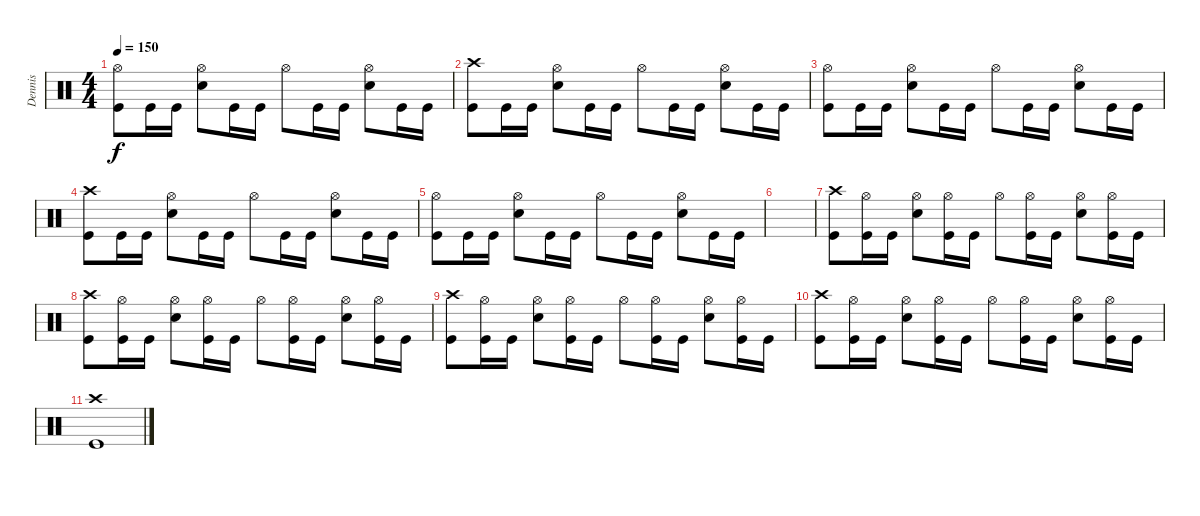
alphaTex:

\track ("Dennis" "Dennis") {instrument percussion}
\staff {score}
\articulation defaults
\ts (4 4)
\tempo 150
\clef neutral
\ks c
("Hi-Hat (open)" "Kick (hit)").8{dy f} "Kick (hit)".16 "Kick (hit)".16 ("Hi-Hat (open)" "Snare (hit) 2").8 "Kick (hit)".16 "Kick (hit)".16 "Hi-Hat (open)".8 "Kick (hit)".16 "Kick (hit)".16 ("Hi-Hat (open)" "Snare (hit) 2").8 "Kick (hit)".16 "Kick (hit)".16 |
("Crash high (hit)" "Kick (hit)").8 "Kick (hit)".16 "Kick (hit)".16 ("Hi-Hat (open)" "Snare (hit) 2").8 "Kick (hit)".16 "Kick (hit)".16 "Hi-Hat (open)".8 "Kick (hit)".16 "Kick (hit)".16 ("Hi-Hat (open)" "Snare (hit) 2").8 "Kick (hit)".16 "Kick (hit)".16 |
("Hi-Hat (open)" "Kick (hit)").8 "Kick (hit)".16 "Kick (hit)".16 ("Hi-Hat (open)" "Snare (hit) 2").8 "Kick (hit)".16 "Kick (hit)".16 "Hi-Hat (open)".8 "Kick (hit)".16 "Kick (hit)".16 ("Hi-Hat (open)" "Snare (hit) 2").8 "Kick (hit)".16 "Kick (hit)".16 |
("Crash high (hit)" "Kick (hit)").8 "Kick (hit)".16 "Kick (hit)".16 ("Hi-Hat (open)" "Snare (hit) 2").8 "Kick (hit)".16 "Kick (hit)".16 "Hi-Hat (open)".8 "Kick (hit)".16 "Kick (hit)".16 ("Hi-Hat (open)" "Snare (hit) 2").8 "Kick (hit)".16 "Kick (hit)".16 |
("Hi-Hat (open)" "Kick (hit)").8 "Kick (hit)".16 "Kick (hit)".16 ("Hi-Hat (open)" "Snare (hit) 2").8 "Kick (hit)".16 "Kick (hit)".16 "Hi-Hat (open)".8 "Kick (hit)".16 "Kick (hit)".16 ("Hi-Hat (open)" "Snare (hit) 2").8 "Kick (hit)".16 "Kick (hit)".16 |
|
("Crash high (hit)" "Kick (hit)").8 ("Hi-Hat (open)" "Kick (hit)").16 "Kick (hit)".16 ("Hi-Hat (open)" "Snare (hit) 2").8 ("Hi-Hat (open)" "Kick (hit)").16 "Kick (hit)".16 "Hi-Hat (open)".8 ("Hi-Hat (open)" "Kick (hit)").16 "Kick (hit)".16 ("Hi-Hat (open)" "Snare (hit) 2").8 ("Hi-Hat (open)" "Kick (hit)").16 "Kick (hit)".16 |
("Crash high (hit)" "Kick (hit)").8 ("Hi-Hat (open)" "Kick (hit)").16 "Kick (hit)".16 ("Hi-Hat (open)" "Snare (hit) 2").8 ("Hi-Hat (open)" "Kick (hit)").16 "Kick (hit)".16 "Hi-Hat (open)".8 ("Hi-Hat (open)" "Kick (hit)").16 "Kick (hit)".16 ("Hi-Hat (open)" "Snare (hit) 2").8 ("Hi-Hat (open)" "Kick (hit)").16 "Kick (hit)".16 |
("Crash high (hit)" "Kick (hit)").8 ("Hi-Hat (open)" "Kick (hit)").16 "Kick (hit)".16 ("Hi-Hat (open)" "Snare (hit) 2").8 ("Hi-Hat (open)" "Kick (hit)").16 "Kick (hit)".16 "Hi-Hat (open)".8 ("Hi-Hat (open)" "Kick (hit)").16 "Kick (hit)".16 ("Hi-Hat (open)" "Snare (hit) 2").8 ("Hi-Hat (open)" "Kick (hit)").16 "Kick (hit)".16 |
("Crash high (hit)" "Kick (hit)").8 ("Hi-Hat (open)" "Kick (hit)").16 "Kick (hit)".16 ("Hi-Hat (open)" "Snare (hit) 2").8 ("Hi-Hat (open)" "Kick (hit)").16 "Kick (hit)".16 "Hi-Hat (open)".8 ("Hi-Hat (open)" "Kick (hit)").16 "Kick (hit)".16 ("Hi-Hat (open)" "Snare (hit) 2").8 ("Hi-Hat (open)" "Kick (hit)").16 "Kick (hit)".16 |
("Crash high (hit)" "Kick (hit)").1
